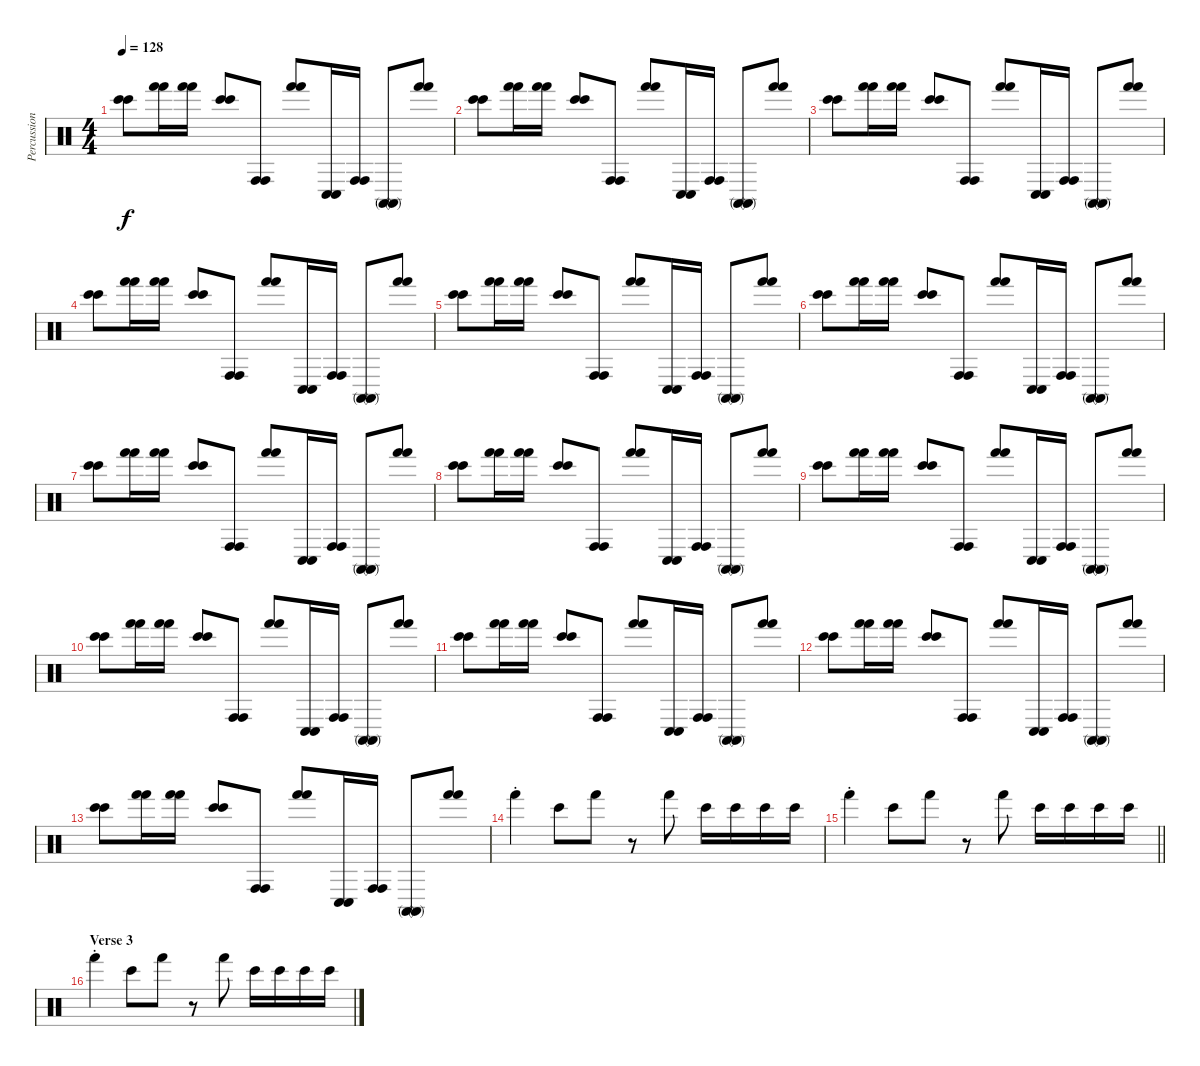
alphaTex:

\track ("Percussioni" "Percussion") {instrument percussion}
\staff {score}
\articulation defaults
\ts (4 4)
\tempo 128
\clef neutral
\ks c
("Bongo High (hit)" "Bongo High (hit)").8{dy f} ("Hand (hit)" "Hand (hit)").16 ("Hand (hit)" "Hand (hit)").16 ("Bongo High (hit)" "Bongo High (hit)").8 ("Conga high (hit)" "Conga high (hit)").8 ("Hand (hit)" "Hand (hit)").8 ("Conga low (hit)" "Conga low (hit)").16 ("Conga high (hit)" "Conga high (hit)").16 ("Conga high (mute)" "Conga high (mute)").8 ("Hand (hit)" "Hand (hit)").8 |
("Bongo High (hit)" "Bongo High (hit)").8 ("Hand (hit)" "Hand (hit)").16 ("Hand (hit)" "Hand (hit)").16 ("Bongo High (hit)" "Bongo High (hit)").8 ("Conga high (hit)" "Conga high (hit)").8 ("Hand (hit)" "Hand (hit)").8 ("Conga low (hit)" "Conga low (hit)").16 ("Conga high (hit)" "Conga high (hit)").16 ("Conga high (mute)" "Conga high (mute)").8 ("Hand (hit)" "Hand (hit)").8 |
("Bongo High (hit)" "Bongo High (hit)").8 ("Hand (hit)" "Hand (hit)").16 ("Hand (hit)" "Hand (hit)").16 ("Bongo High (hit)" "Bongo High (hit)").8 ("Conga high (hit)" "Conga high (hit)").8 ("Hand (hit)" "Hand (hit)").8 ("Conga low (hit)" "Conga low (hit)").16 ("Conga high (hit)" "Conga high (hit)").16 ("Conga high (mute)" "Conga high (mute)").8 ("Hand (hit)" "Hand (hit)").8 |
("Bongo High (hit)" "Bongo High (hit)").8 ("Hand (hit)" "Hand (hit)").16 ("Hand (hit)" "Hand (hit)").16 ("Bongo High (hit)" "Bongo High (hit)").8 ("Conga high (hit)" "Conga high (hit)").8 ("Hand (hit)" "Hand (hit)").8 ("Conga low (hit)" "Conga low (hit)").16 ("Conga high (hit)" "Conga high (hit)").16 ("Conga high (mute)" "Conga high (mute)").8 ("Hand (hit)" "Hand (hit)").8 |
("Bongo High (hit)" "Bongo High (hit)").8 ("Hand (hit)" "Hand (hit)").16 ("Hand (hit)" "Hand (hit)").16 ("Bongo High (hit)" "Bongo High (hit)").8 ("Conga high (hit)" "Conga high (hit)").8 ("Hand (hit)" "Hand (hit)").8 ("Conga low (hit)" "Conga low (hit)").16 ("Conga high (hit)" "Conga high (hit)").16 ("Conga high (mute)" "Conga high (mute)").8 ("Hand (hit)" "Hand (hit)").8 |
("Bongo High (hit)" "Bongo High (hit)").8 ("Hand (hit)" "Hand (hit)").16 ("Hand (hit)" "Hand (hit)").16 ("Bongo High (hit)" "Bongo High (hit)").8 ("Conga high (hit)" "Conga high (hit)").8 ("Hand (hit)" "Hand (hit)").8 ("Conga low (hit)" "Conga low (hit)").16 ("Conga high (hit)" "Conga high (hit)").16 ("Conga high (mute)" "Conga high (mute)").8 ("Hand (hit)" "Hand (hit)").8 |
("Bongo High (hit)" "Bongo High (hit)").8 ("Hand (hit)" "Hand (hit)").16 ("Hand (hit)" "Hand (hit)").16 ("Bongo High (hit)" "Bongo High (hit)").8 ("Conga high (hit)" "Conga high (hit)").8 ("Hand (hit)" "Hand (hit)").8 ("Conga low (hit)" "Conga low (hit)").16 ("Conga high (hit)" "Conga high (hit)").16 ("Conga high (mute)" "Conga high (mute)").8 ("Hand (hit)" "Hand (hit)").8 |
("Bongo High (hit)" "Bongo High (hit)").8 ("Hand (hit)" "Hand (hit)").16 ("Hand (hit)" "Hand (hit)").16 ("Bongo High (hit)" "Bongo High (hit)").8 ("Conga high (hit)" "Conga high (hit)").8 ("Hand (hit)" "Hand (hit)").8 ("Conga low (hit)" "Conga low (hit)").16 ("Conga high (hit)" "Conga high (hit)").16 ("Conga high (mute)" "Conga high (mute)").8 ("Hand (hit)" "Hand (hit)").8 |
("Bongo High (hit)" "Bongo High (hit)").8 ("Hand (hit)" "Hand (hit)").16 ("Hand (hit)" "Hand (hit)").16 ("Bongo High (hit)" "Bongo High (hit)").8 ("Conga high (hit)" "Conga high (hit)").8 ("Hand (hit)" "Hand (hit)").8 ("Conga low (hit)" "Conga low (hit)").16 ("Conga high (hit)" "Conga high (hit)").16 ("Conga high (mute)" "Conga high (mute)").8 ("Hand (hit)" "Hand (hit)").8 |
("Bongo High (hit)" "Bongo High (hit)").8 ("Hand (hit)" "Hand (hit)").16 ("Hand (hit)" "Hand (hit)").16 ("Bongo High (hit)" "Bongo High (hit)").8 ("Conga high (hit)" "Conga high (hit)").8 ("Hand (hit)" "Hand (hit)").8 ("Conga low (hit)" "Conga low (hit)").16 ("Conga high (hit)" "Conga high (hit)").16 ("Conga high (mute)" "Conga high (mute)").8 ("Hand (hit)" "Hand (hit)").8 |
("Bongo High (hit)" "Bongo High (hit)").8 ("Hand (hit)" "Hand (hit)").16 ("Hand (hit)" "Hand (hit)").16 ("Bongo High (hit)" "Bongo High (hit)").8 ("Conga high (hit)" "Conga high (hit)").8 ("Hand (hit)" "Hand (hit)").8 ("Conga low (hit)" "Conga low (hit)").16 ("Conga high (hit)" "Conga high (hit)").16 ("Conga high (mute)" "Conga high (mute)").8 ("Hand (hit)" "Hand (hit)").8 |
("Bongo High (hit)" "Bongo High (hit)").8 ("Hand (hit)" "Hand (hit)").16 ("Hand (hit)" "Hand (hit)").16 ("Bongo High (hit)" "Bongo High (hit)").8 ("Conga high (hit)" "Conga high (hit)").8 ("Hand (hit)" "Hand (hit)").8 ("Conga low (hit)" "Conga low (hit)").16 ("Conga high (hit)" "Conga high (hit)").16 ("Conga high (mute)" "Conga high (mute)").8 ("Hand (hit)" "Hand (hit)").8 |
("Bongo High (hit)" "Bongo High (hit)").8 ("Hand (hit)" "Hand (hit)").16 ("Hand (hit)" "Hand (hit)").16 ("Bongo High (hit)" "Bongo High (hit)").8 ("Conga high (hit)" "Conga high (hit)").8 ("Hand (hit)" "Hand (hit)").8 ("Conga low (hit)" "Conga low (hit)").16 ("Conga high (hit)" "Conga high (hit)").16 ("Conga high (mute)" "Conga high (mute)").8 ("Hand (hit)" "Hand (hit)").8 |
"Hand (hit)"{st}.4 "Bongo High (hit)".8 "Hand (hit)".8 r.8 "Hand (hit)".8 "Bongo High (hit)".16 "Bongo High (hit)".16 "Bongo High (hit)".16 "Bongo High (hit)".16 |
\barLineRight lightlight "Hand (hit)"{st}.4 "Bongo High (hit)".8 "Hand (hit)".8
r.8 "Hand (hit)".8 "Bongo High (hit)".16 "Bongo High (hit)".16 "Bongo High (hit)".16 "Bongo High (hit)".16 |
\section ("" "Verse 3")
"Hand (hit)"{st}.4 "Bongo High (hit)".8 "Hand (hit)".8 r.8 "Hand (hit)".8 "Bongo High (hit)".16 "Bongo High (hit)".16 "Bongo High (hit)".16 "Bongo High (hit)".16
